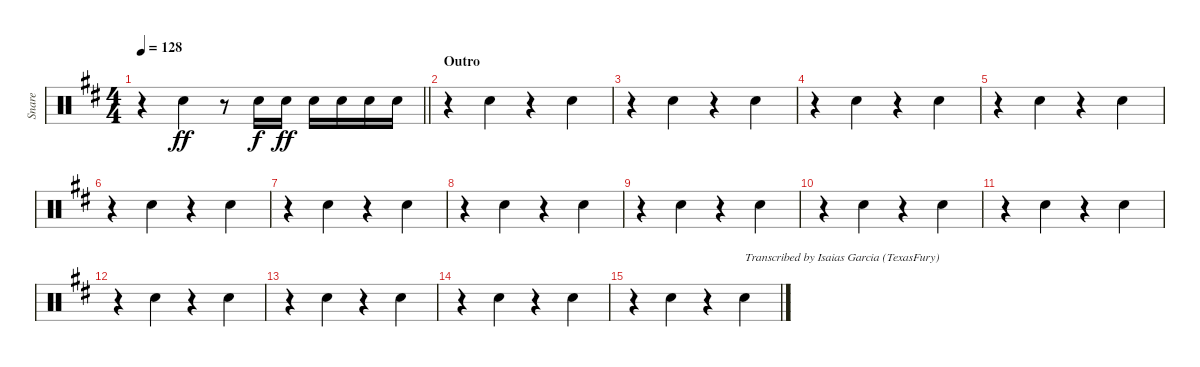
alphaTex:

\track ("Snare" "Snare") {instrument percussion}
\staff {score}
\articulation defaults
\ts (4 4)
\tempo 128
\clef neutral
\barLineRight lightlight
\ks bminor
r.4{dy ff beam merge} "Electric Snare (hit)".4 r.8 "Electric Snare (hit)".16{dy f} "Electric Snare (hit)".16{dy ff} "Electric Snare (hit)".16 "Electric Snare (hit)".16 "Electric Snare (hit)".16 "Electric Snare (hit)".16 |
\section ("" "Outro")
r.4{beam merge} "Electric Snare (hit)".4 r.4{beam merge} "Electric Snare (hit)".4 |
r.4{beam merge} "Electric Snare (hit)".4 r.4{beam merge} "Electric Snare (hit)".4 |
r.4{beam merge} "Electric Snare (hit)".4 r.4{beam merge} "Electric Snare (hit)".4 |
r.4{beam merge} "Electric Snare (hit)".4 r.4{beam merge} "Electric Snare (hit)".4 |
r.4{beam merge} "Electric Snare (hit)".4 r.4{beam merge} "Electric Snare (hit)".4 |
r.4{beam merge} "Electric Snare (hit)".4 r.4{beam merge} "Electric Snare (hit)".4 |
r.4{beam merge} "Electric Snare (hit)".4 r.4{beam merge} "Electric Snare (hit)".4 |
r.4{beam merge} "Electric Snare (hit)".4 r.4{beam merge} "Electric Snare (hit)".4 |
r.4{beam merge} "Electric Snare (hit)".4 r.4{beam merge} "Electric Snare (hit)".4 |
r.4{beam merge} "Electric Snare (hit)".4 r.4{beam merge} "Electric Snare (hit)".4 |
r.4{beam merge} "Electric Snare (hit)".4 r.4{beam merge} "Electric Snare (hit)".4 |
r.4{beam merge} "Electric Snare (hit)".4 r.4{beam merge} "Electric Snare (hit)".4 |
r.4{beam merge} "Electric Snare (hit)".4 r.4{beam merge} "Electric Snare (hit)".4 |
r.4{beam merge} "Electric Snare (hit)".4 r.4{beam merge} "Electric Snare (hit)".4{txt "Transcribed by Isaias Garcia (TexasFury)"}
